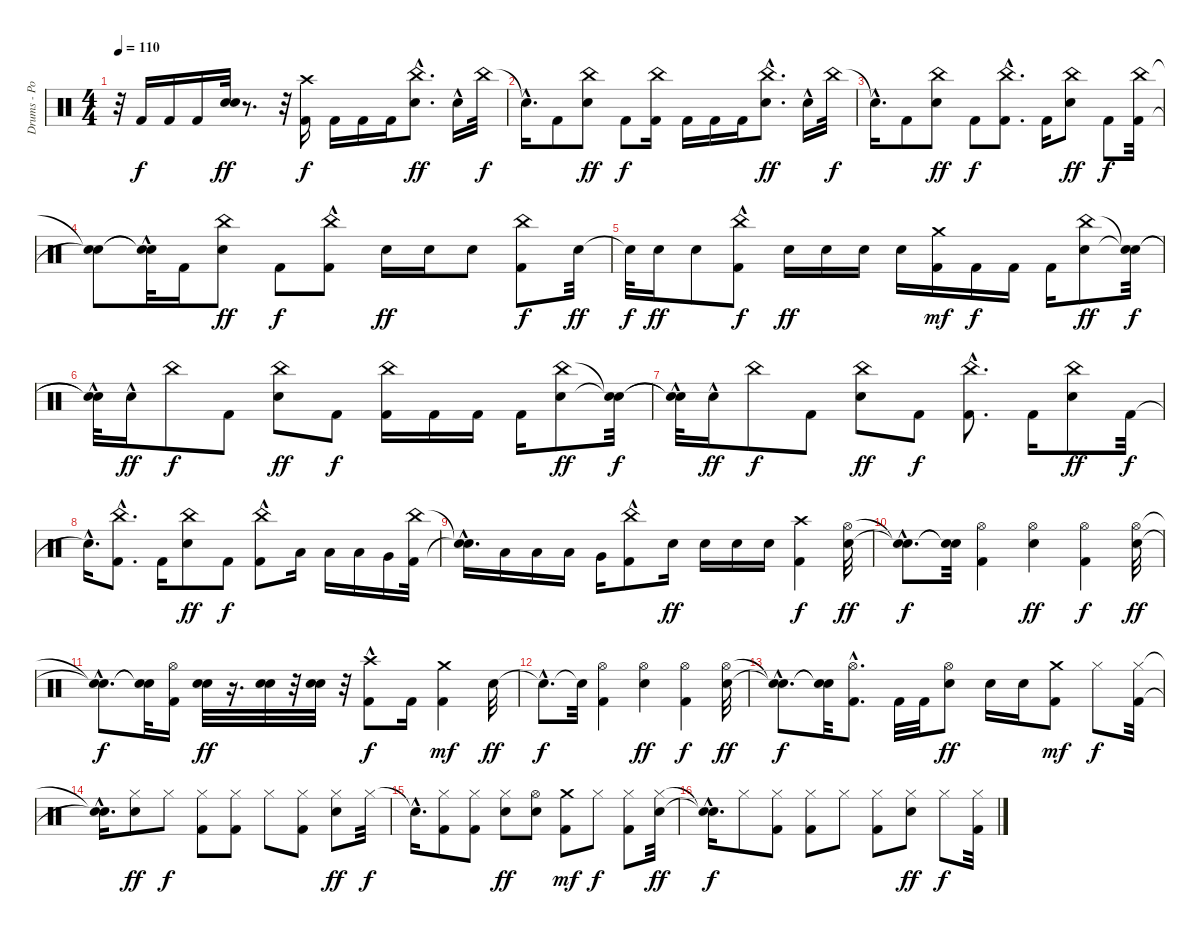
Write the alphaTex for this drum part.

\track ("Drums - Portnoy" "Drums - Po") {instrument percussion}
\staff {score}
\articulation defaults
\ts (4 4)
\tempo 110
\clef neutral
\ks c
r.32{dy ff} "Kick (hit) 2".16{dy f} "Kick (hit) 2".16 "Kick (hit) 2".16 ("Electric Snare (hit)" "Electric Snare (hit)").32{dy ff} r.8{d} r.32 ("Crash high (hit)" "Kick (hit) 2").16{dy f} "Kick (hit) 2".16 "Kick (hit) 2".16 "Kick (hit) 2".16 ("Electric Snare (hit)"{hac} "China (hit)").8{d dy ff} "Electric Snare (hit)"{hac}.16 "China (hit)".32{dy f} |
"Snare (hit)"{hac t}.16{d} "Kick (hit) 2".8 ("Electric Snare (hit)" "China (hit)").8{dy ff} "Kick (hit) 2".8{dy f} ("Kick (hit) 2" "China (hit)").16 "Kick (hit) 2".16 "Kick (hit) 2".16 "Kick (hit) 2".16 ("Electric Snare (hit)"{hac} "China (hit)").8{d dy ff} "Electric Snare (hit)"{hac}.16 "China (hit)".32{dy f} |
"Snare (hit)"{hac t}.16{d} "Kick (hit) 2".8 ("Electric Snare (hit)" "China (hit)").8{dy ff} "Kick (hit) 2".8{dy f} ("Kick (hit) 2"{hac} "China (hit)").8{d} "Kick (hit) 2".16 ("Electric Snare (hit)" "China (hit)").8{dy ff} "Kick (hit) 2".8{dy f} ("Kick (hit) 2" "China (hit)").32 |
("Snare (hit)"{t} "Snare (hit)"{t}).8 ("Snare (hit)"{t} "Snare (hit)"{hac t}).32 "Kick (hit) 2".16 ("Electric Snare (hit)" "China (hit)").8{dy ff} "Kick (hit) 2".8{dy f} ("Kick (hit) 2" "China (hit)"{hac}).8 "Electric Snare (hit)".16{dy ff} "Electric Snare (hit)".16 "Electric Snare (hit)".8 ("Kick (hit) 2" "China (hit)").8{dy f} "Electric Snare (hit)".32{dy ff} |
"Snare (hit)"{t}.32{dy f} "Electric Snare (hit)".16{dy ff} "Electric Snare (hit)".8 ("Kick (hit) 2" "China (hit)"{hac}).8{dy f} "Electric Snare (hit)".16{dy ff} "Electric Snare (hit)".16 "Electric Snare (hit)".16 "Electric Snare (hit)".16 ("Kick (hit) 2" "Crash medium (hit)").16{dy mf} "Kick (hit) 2".16{dy f} "Kick (hit) 2".16 "Kick (hit) 2".16 ("Electric Snare (hit)" "China (hit)").8{dy ff} ("Snare (hit)"{t} "Snare (hit)"{t}).32{dy f} |
("Snare (hit)"{t} "Snare (hit)"{hac t}).32 "Electric Snare (hit)"{hac}.16{dy ff} "China (hit)".8{dy f} "Kick (hit) 2".8 ("Electric Snare (hit)" "China (hit)").8{dy ff} "Kick (hit) 2".8{dy f} ("Kick (hit) 2" "China (hit)").16 "Kick (hit) 2".16 "Kick (hit) 2".16 "Kick (hit) 2".16 ("Electric Snare (hit)" "China (hit)").8{dy ff} ("Snare (hit)"{t} "Snare (hit)"{t}).32{dy f} |
("Snare (hit)"{t} "Snare (hit)"{hac t}).32 "Electric Snare (hit)"{hac}.16{dy ff} "China (hit)".8{dy f} "Kick (hit) 2".8 ("Electric Snare (hit)" "China (hit)").8{dy ff} "Kick (hit) 2".8{dy f} ("Kick (hit) 2"{hac} "China (hit)").8{d} "Kick (hit) 2".16 ("Electric Snare (hit)" "China (hit)").8{dy ff} "Kick (hit) 2".32{dy f} |
"Snare (hit)"{hac t}.16{d} ("Kick (hit) 2"{hac} "China (hit)").8{d} "Kick (hit) 2".16 ("Electric Snare (hit)" "China (hit)").8{dy ff} "Kick (hit) 2".8{dy f} ("Kick (hit) 2" "China (hit)"{hac}).8 "Low Tom (hit)".16 "Low Tom (hit)".16 "Low Tom (hit)".16 "Very Low Tom (hit)".16 ("Kick (hit) 2" "China (hit)").32 |
("Snare (hit)"{hac t} "Snare (hit)"{hac t}).16{d} "Low Tom (hit)".16 "Low Tom (hit)".16 "Low Tom (hit)".16 "Very Low Tom (hit)".16 ("Kick (hit) 2" "China (hit)"{hac}).8 "Electric Snare (hit)".16{dy ff} "Electric Snare (hit)".16 "Electric Snare (hit)".16 "Electric Snare (hit)".16 ("Crash high (hit)" "Kick (hit) 2").4{dy f} ("Hi-Hat (open)" "Electric Snare (hit)").32{dy ff} |
("Snare (hit)"{hac t} "Snare (hit)"{hac t}).8{d dy f} ("Snare (hit)"{t} "Snare (hit)"{t}).32 ("Kick (hit) 2" "Hi-Hat (open)").4 ("Hi-Hat (open)" "Electric Snare (hit)").4{dy ff} ("Hi-Hat (open)" "Kick (hit) 2").4{dy f} ("Hi-Hat (open)" "Electric Snare (hit)").32{dy ff} |
("Snare (hit)"{hac t} "Snare (hit)"{hac t}).8{d dy f} ("Snare (hit)"{t} "Snare (hit)"{t}).32 ("Kick (hit) 2" "Hi-Hat (open)").16 ("Electric Snare (hit)" "Electric Snare (hit)").32{dy ff} r.16{d} ("Electric Snare (hit)" "Electric Snare (hit)").32 r.32 ("Electric Snare (hit)" "Electric Snare (hit)").32 r.32 ("Kick (hit) 2" "Crash high (hit)"{hac}).8{dy f} "Kick (hit) 2".16 ("Kick (hit) 2" "Crash medium (hit)").4{dy mf} "Electric Snare (hit)".32{dy ff} |
"Snare (hit)"{hac t}.8{d dy f} "Snare (hit)"{t}.32 ("Kick (hit) 2" "Hi-Hat (open)").4 ("Hi-Hat (open)" "Electric Snare (hit)").4{dy ff} ("Hi-Hat (open)" "Kick (hit) 2").4{dy f} ("Hi-Hat (open)" "Electric Snare (hit)").32{dy ff} |
("Snare (hit)"{hac t} "Snare (hit)"{hac t}).8{d dy f} ("Snare (hit)"{t} "Snare (hit)"{t}).32 ("Kick (hit) 2"{hac} "Hi-Hat (open)").8{d} "Kick (hit) 2".32 "Kick (hit) 2".32 ("Hi-Hat (open)" "Electric Snare (hit)").8{dy ff} "Electric Snare (hit)".16 "Electric Snare (hit)".16 ("Kick (hit) 2" "Crash medium (hit)").8{dy mf} "Hi-Hat (closed)".8{dy f} ("Kick (hit) 2" "Hi-Hat (closed)").32 |
("Snare (hit)"{hac t} "Snare (hit)"{hac t}).16{d} ("Hi-Hat (closed)" "Electric Snare (hit)").8{dy ff} "Hi-Hat (closed)".8{dy f} ("Kick (hit) 2" "Hi-Hat (closed)").8 ("Kick (hit) 2" "Hi-Hat (closed)").8 "Hi-Hat (closed)".8 ("Kick (hit) 2" "Hi-Hat (closed)").8 ("Hi-Hat (closed)" "Electric Snare (hit)").8{dy ff} "Hi-Hat (closed)".32{dy f} |
"Snare (hit)"{hac t}.16{d} ("Kick (hit) 2" "Hi-Hat (closed)").8 ("Kick (hit) 2" "Hi-Hat (closed)").8 ("Hi-Hat (closed)" "Electric Snare (hit)").8{dy ff} ("Hi-Hat (open)" "Electric Snare (hit)").8 ("Kick (hit) 2" "Crash medium (hit)").8{dy mf} "Hi-Hat (closed)".8{dy f} ("Kick (hit) 2" "Hi-Hat (closed)").8 ("Hi-Hat (closed)" "Electric Snare (hit)").32{dy ff} |
("Snare (hit)"{hac t} "Snare (hit)"{hac t}).16{d dy f} "Hi-Hat (closed)".8 ("Kick (hit) 2" "Hi-Hat (closed)").8 ("Kick (hit) 2" "Hi-Hat (closed)").8 "Hi-Hat (closed)".8 ("Kick (hit) 2" "Hi-Hat (closed)").8 ("Hi-Hat (closed)" "Electric Snare (hit)").8{dy ff} "Hi-Hat (closed)".8{dy f} ("Kick (hit) 2" "Hi-Hat (closed)").32
